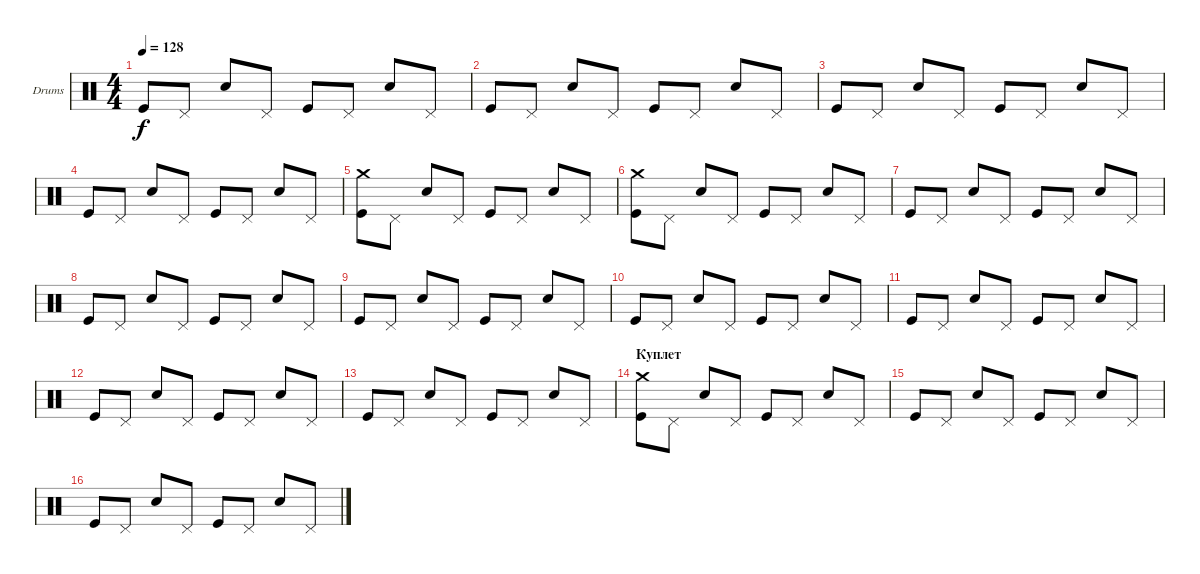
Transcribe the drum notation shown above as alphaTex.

\defaultSystemsLayout 4
\bracketExtendMode groupsimilarinstruments
\firstSystemTrackNameOrientation horizontal
\otherSystemsTrackNameOrientation horizontal
\track ("Е. Кулаков" "Drums") {instrument percussion}
\staff {score}
\articulation defaults
\ts (4 4)
\tempo 128
\clef neutral
\ks c "Kick (hit)".8{dy f} "Pedal Hi-Hat (hit)".8 "Snare (hit) 2".8 "Pedal Hi-Hat (hit)".8 "Kick (hit)".8 "Pedal Hi-Hat (hit)".8 "Snare (hit) 2".8 "Pedal Hi-Hat (hit)".8
|
"Kick (hit)".8 "Pedal Hi-Hat (hit)".8 "Snare (hit) 2".8 "Pedal Hi-Hat (hit)".8 "Kick (hit)".8 "Pedal Hi-Hat (hit)".8 "Snare (hit) 2".8 "Pedal Hi-Hat (hit)".8 |
"Kick (hit)".8 "Pedal Hi-Hat (hit)".8 "Snare (hit) 2".8 "Pedal Hi-Hat (hit)".8 "Kick (hit)".8 "Pedal Hi-Hat (hit)".8 "Snare (hit) 2".8 "Pedal Hi-Hat (hit)".8 |
"Kick (hit)".8 "Pedal Hi-Hat (hit)".8 "Snare (hit) 2".8 "Pedal Hi-Hat (hit)".8 "Kick (hit)".8 "Pedal Hi-Hat (hit)".8 "Snare (hit) 2".8 "Pedal Hi-Hat (hit)".8 |
("Kick (hit)" "Crash medium (hit)").8 "Pedal Hi-Hat (hit)".8 "Snare (hit) 2".8 "Pedal Hi-Hat (hit)".8 "Kick (hit)".8 "Pedal Hi-Hat (hit)".8 "Snare (hit) 2".8 "Pedal Hi-Hat (hit)".8 |
("Kick (hit)" "Crash medium (hit)").8 "Pedal Hi-Hat (hit)".8 "Snare (hit) 2".8 "Pedal Hi-Hat (hit)".8 "Kick (hit)".8 "Pedal Hi-Hat (hit)".8 "Snare (hit) 2".8 "Pedal Hi-Hat (hit)".8 |
"Kick (hit)".8 "Pedal Hi-Hat (hit)".8 "Snare (hit) 2".8 "Pedal Hi-Hat (hit)".8 "Kick (hit)".8 "Pedal Hi-Hat (hit)".8 "Snare (hit) 2".8 "Pedal Hi-Hat (hit)".8 |
"Kick (hit)".8 "Pedal Hi-Hat (hit)".8 "Snare (hit) 2".8 "Pedal Hi-Hat (hit)".8 "Kick (hit)".8 "Pedal Hi-Hat (hit)".8 "Snare (hit) 2".8 "Pedal Hi-Hat (hit)".8 |
"Kick (hit)".8 "Pedal Hi-Hat (hit)".8 "Snare (hit) 2".8 "Pedal Hi-Hat (hit)".8 "Kick (hit)".8 "Pedal Hi-Hat (hit)".8 "Snare (hit) 2".8 "Pedal Hi-Hat (hit)".8 |
"Kick (hit)".8 "Pedal Hi-Hat (hit)".8 "Snare (hit) 2".8 "Pedal Hi-Hat (hit)".8 "Kick (hit)".8 "Pedal Hi-Hat (hit)".8 "Snare (hit) 2".8 "Pedal Hi-Hat (hit)".8 |
"Kick (hit)".8 "Pedal Hi-Hat (hit)".8 "Snare (hit) 2".8 "Pedal Hi-Hat (hit)".8 "Kick (hit)".8 "Pedal Hi-Hat (hit)".8 "Snare (hit) 2".8 "Pedal Hi-Hat (hit)".8 |
"Kick (hit)".8 "Pedal Hi-Hat (hit)".8 "Snare (hit) 2".8 "Pedal Hi-Hat (hit)".8 "Kick (hit)".8 "Pedal Hi-Hat (hit)".8 "Snare (hit) 2".8 "Pedal Hi-Hat (hit)".8 |
"Kick (hit)".8 "Pedal Hi-Hat (hit)".8 "Snare (hit) 2".8 "Pedal Hi-Hat (hit)".8 "Kick (hit)".8 "Pedal Hi-Hat (hit)".8 "Snare (hit) 2".8 "Pedal Hi-Hat (hit)".8 |
\section ("" "Куплет")
("Kick (hit)" "Crash medium (hit)").8 "Pedal Hi-Hat (hit)".8 "Snare (hit) 2".8 "Pedal Hi-Hat (hit)".8 "Kick (hit)".8 "Pedal Hi-Hat (hit)".8 "Snare (hit) 2".8 "Pedal Hi-Hat (hit)".8 |
"Kick (hit)".8 "Pedal Hi-Hat (hit)".8 "Snare (hit) 2".8 "Pedal Hi-Hat (hit)".8 "Kick (hit)".8 "Pedal Hi-Hat (hit)".8 "Snare (hit) 2".8 "Pedal Hi-Hat (hit)".8 |
"Kick (hit)".8 "Pedal Hi-Hat (hit)".8 "Snare (hit) 2".8 "Pedal Hi-Hat (hit)".8 "Kick (hit)".8 "Pedal Hi-Hat (hit)".8 "Snare (hit) 2".8 "Pedal Hi-Hat (hit)".8
